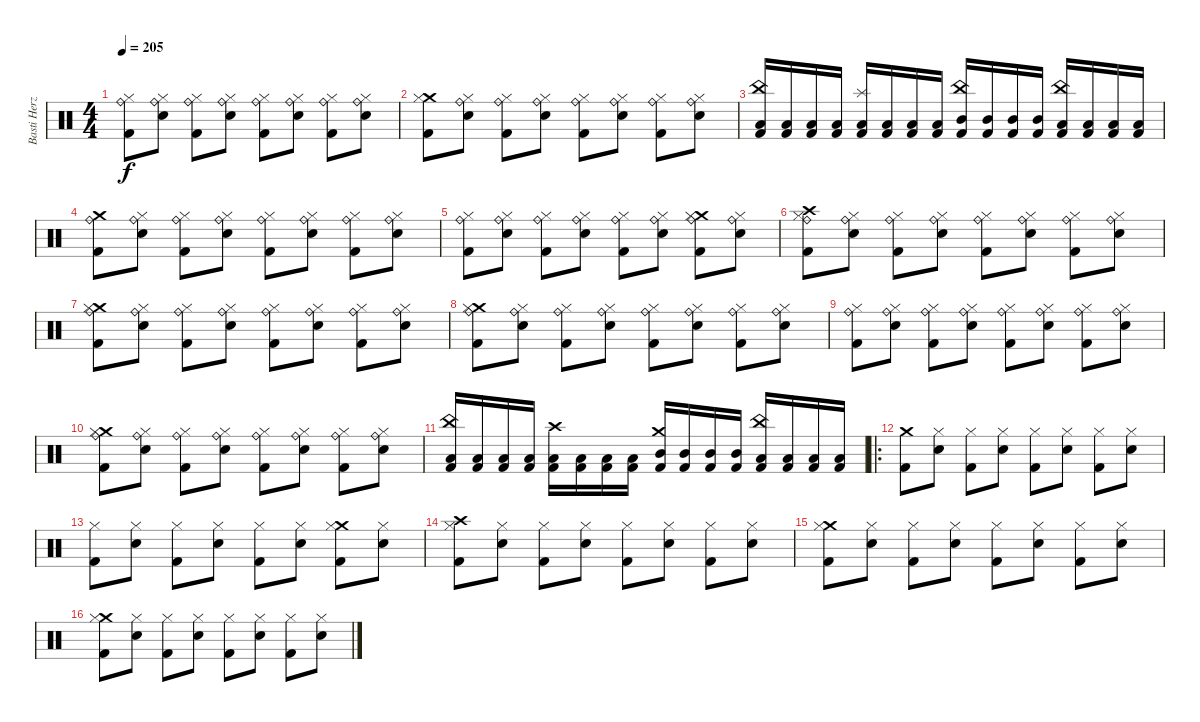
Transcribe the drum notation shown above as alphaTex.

\track ("Basti Herzog" "Basti Herz") {instrument percussion}
\staff {score}
\articulation defaults
\ts (4 4)
\tempo 205
\clef neutral
\ks c
("Ride (bell)" "Hi-Hat (closed)" "Kick (hit) 2").8{dy f} ("Ride (bell)" "Hi-Hat (closed)" "Snare (hit) 2").8 ("Ride (bell)" "Hi-Hat (closed)" "Kick (hit) 2").8 ("Ride (bell)" "Hi-Hat (closed)" "Snare (hit) 2").8 ("Ride (bell)" "Hi-Hat (closed)" "Kick (hit) 2").8 ("Ride (bell)" "Hi-Hat (closed)" "Snare (hit) 2").8 ("Ride (bell)" "Hi-Hat (closed)" "Kick (hit) 2").8 ("Ride (bell)" "Hi-Hat (closed)" "Snare (hit) 2").8 |
("Crash medium (hit)" "Hi-Hat (closed)" "Kick (hit) 2").8 ("Ride (bell)" "Hi-Hat (closed)" "Snare (hit) 2").8 ("Ride (bell)" "Hi-Hat (closed)" "Kick (hit) 2").8 ("Ride (bell)" "Hi-Hat (closed)" "Snare (hit) 2").8 ("Ride (bell)" "Hi-Hat (closed)" "Kick (hit) 2").8 ("Ride (bell)" "Hi-Hat (closed)" "Snare (hit) 2").8 ("Ride (bell)" "Hi-Hat (closed)" "Kick (hit) 2").8 ("Ride (bell)" "Hi-Hat (closed)" "Snare (hit) 2").8 |
("China (hit)" "Low Tom (hit)" "Kick (hit) 2").16 ("Low Tom (hit)" "Kick (hit) 2").16 ("Low Tom (hit)" "Kick (hit) 2").16 ("Low Tom (hit)" "Kick (hit) 2").16 ("Splash (hit)" "Low Floor Tom (hit)" "Kick (hit) 2").16 ("Low Floor Tom (hit)" "Kick (hit) 2").16 ("Low Floor Tom (hit)" "Kick (hit) 2").16 ("Low Floor Tom (hit)" "Kick (hit) 2").16 ("China (hit)" "Mid Tom (hit)" "Kick (hit) 2").16 ("Mid Tom (hit)" "Kick (hit) 2").16 ("Mid Tom (hit)" "Kick (hit) 2").16 ("Mid Tom (hit)" "Kick (hit) 2").16 ("China (hit)" "Low Tom (hit)" "Kick (hit) 2").16 ("Low Tom (hit)" "Kick (hit) 2").16 ("Low Tom (hit)" "Kick (hit) 2").16 ("Low Tom (hit)" "Kick (hit) 2").16 |
("Ride (bell)" "Crash medium (hit)" "Kick (hit) 2").8 ("Ride (bell)" "Hi-Hat (closed)" "Snare (hit) 2").8 ("Ride (bell)" "Hi-Hat (closed)" "Kick (hit) 2").8 ("Ride (bell)" "Hi-Hat (closed)" "Snare (hit) 2").8 ("Ride (bell)" "Hi-Hat (closed)" "Kick (hit) 2").8 ("Ride (bell)" "Hi-Hat (closed)" "Snare (hit) 2").8 ("Ride (bell)" "Hi-Hat (closed)" "Kick (hit) 2").8 ("Ride (bell)" "Hi-Hat (closed)" "Snare (hit) 2").8 |
("Ride (bell)" "Hi-Hat (closed)" "Kick (hit) 2").8 ("Ride (bell)" "Hi-Hat (closed)" "Snare (hit) 2").8 ("Ride (bell)" "Hi-Hat (closed)" "Kick (hit) 2").8 ("Ride (bell)" "Hi-Hat (closed)" "Snare (hit) 2").8 ("Ride (bell)" "Hi-Hat (closed)" "Kick (hit) 2").8 ("Ride (bell)" "Hi-Hat (closed)" "Snare (hit) 2").8 ("Ride (bell)" "Crash medium (hit)" "Hi-Hat (closed)" "Kick (hit) 2").8 ("Ride (bell)" "Hi-Hat (closed)" "Snare (hit) 2").8 |
("Ride (bell)" "Crash high (hit)" "Hi-Hat (closed)" "Kick (hit) 2").8 ("Ride (bell)" "Hi-Hat (closed)" "Snare (hit) 2").8 ("Ride (bell)" "Hi-Hat (closed)" "Kick (hit) 2").8 ("Ride (bell)" "Hi-Hat (closed)" "Snare (hit) 2").8 ("Ride (bell)" "Hi-Hat (closed)" "Kick (hit) 2").8 ("Ride (bell)" "Hi-Hat (closed)" "Snare (hit) 2").8 ("Ride (bell)" "Hi-Hat (closed)" "Kick (hit) 2").8 ("Ride (bell)" "Hi-Hat (closed)" "Snare (hit) 2").8 |
("Ride (bell)" "Crash medium (hit)" "Hi-Hat (closed)" "Kick (hit) 2").8 ("Ride (bell)" "Hi-Hat (closed)" "Snare (hit) 2").8 ("Ride (bell)" "Hi-Hat (closed)" "Kick (hit) 2").8 ("Ride (bell)" "Hi-Hat (closed)" "Snare (hit) 2").8 ("Ride (bell)" "Hi-Hat (closed)" "Kick (hit) 2").8 ("Ride (bell)" "Hi-Hat (closed)" "Snare (hit) 2").8 ("Ride (bell)" "Hi-Hat (closed)" "Kick (hit) 2").8 ("Ride (bell)" "Hi-Hat (closed)" "Snare (hit) 2").8 |
("Ride (bell)" "Crash medium (hit)" "Hi-Hat (closed)" "Kick (hit) 2").8 ("Ride (bell)" "Hi-Hat (closed)" "Snare (hit) 2").8 ("Ride (bell)" "Hi-Hat (closed)" "Kick (hit) 2").8 ("Ride (bell)" "Hi-Hat (closed)" "Snare (hit) 2").8 ("Ride (bell)" "Hi-Hat (closed)" "Kick (hit) 2").8 ("Ride (bell)" "Hi-Hat (closed)" "Snare (hit) 2").8 ("Ride (bell)" "Hi-Hat (closed)" "Kick (hit) 2").8 ("Ride (bell)" "Hi-Hat (closed)" "Snare (hit) 2").8 |
("Ride (bell)" "Hi-Hat (closed)" "Kick (hit) 2").8 ("Ride (bell)" "Hi-Hat (closed)" "Snare (hit) 2").8 ("Ride (bell)" "Hi-Hat (closed)" "Kick (hit) 2").8 ("Ride (bell)" "Hi-Hat (closed)" "Snare (hit) 2").8 ("Ride (bell)" "Hi-Hat (closed)" "Kick (hit) 2").8 ("Ride (bell)" "Hi-Hat (closed)" "Snare (hit) 2").8 ("Ride (bell)" "Hi-Hat (closed)" "Kick (hit) 2").8 ("Ride (bell)" "Hi-Hat (closed)" "Snare (hit) 2").8 |
("Ride (bell)" "Crash medium (hit)" "Hi-Hat (closed)" "Kick (hit) 2").8 ("Ride (bell)" "Hi-Hat (closed)" "Snare (hit) 2").8 ("Ride (bell)" "Hi-Hat (closed)" "Kick (hit) 2").8 ("Ride (bell)" "Hi-Hat (closed)" "Snare (hit) 2").8 ("Ride (bell)" "Hi-Hat (closed)" "Kick (hit) 2").8 ("Ride (bell)" "Hi-Hat (closed)" "Snare (hit) 2").8 ("Ride (bell)" "Hi-Hat (closed)" "Kick (hit) 2").8 ("Ride (bell)" "Hi-Hat (closed)" "Snare (hit) 2").8 |
("China (hit)" "Low Tom (hit)" "Kick (hit) 2").16 ("Low Tom (hit)" "Kick (hit) 2").16 ("Low Tom (hit)" "Kick (hit) 2").16 ("Low Tom (hit)" "Kick (hit) 2").16 ("Crash high (hit)" "Low Floor Tom (hit)" "Kick (hit) 2").16 ("Low Floor Tom (hit)" "Kick (hit) 2").16 ("Low Floor Tom (hit)" "Kick (hit) 2").16 ("Low Floor Tom (hit)" "Kick (hit) 2").16 ("Crash medium (hit)" "Mid Tom (hit)" "Kick (hit) 2").16 ("Mid Tom (hit)" "Kick (hit) 2").16 ("Mid Tom (hit)" "Kick (hit) 2").16 ("Mid Tom (hit)" "Kick (hit) 2").16 ("China (hit)" "Low Tom (hit)" "Kick (hit) 2").16 ("Low Tom (hit)" "Kick (hit) 2").16 ("Low Tom (hit)" "Kick (hit) 2").16 ("Low Tom (hit)" "Kick (hit) 2").16 |
\ro
("Crash medium (hit)" "Kick (hit) 2").8 ("Hi-Hat (closed)" "Snare (hit) 2").8 ("Hi-Hat (closed)" "Kick (hit) 2").8 ("Hi-Hat (closed)" "Snare (hit) 2").8 ("Hi-Hat (closed)" "Kick (hit) 2").8 ("Hi-Hat (closed)" "Snare (hit) 2").8 ("Hi-Hat (closed)" "Kick (hit) 2").8 ("Hi-Hat (closed)" "Snare (hit) 2").8 |
("Hi-Hat (closed)" "Kick (hit) 2").8 ("Hi-Hat (closed)" "Snare (hit) 2").8 ("Hi-Hat (closed)" "Kick (hit) 2").8 ("Hi-Hat (closed)" "Snare (hit) 2").8 ("Hi-Hat (closed)" "Kick (hit) 2").8 ("Hi-Hat (closed)" "Snare (hit) 2").8 ("Crash medium (hit)" "Hi-Hat (closed)" "Kick (hit) 2").8 ("Hi-Hat (closed)" "Snare (hit) 2").8 |
("Crash high (hit)" "Hi-Hat (closed)" "Kick (hit) 2").8 ("Hi-Hat (closed)" "Snare (hit) 2").8 ("Hi-Hat (closed)" "Kick (hit) 2").8 ("Hi-Hat (closed)" "Snare (hit) 2").8 ("Hi-Hat (closed)" "Kick (hit) 2").8 ("Hi-Hat (closed)" "Snare (hit) 2").8 ("Hi-Hat (closed)" "Kick (hit) 2").8 ("Hi-Hat (closed)" "Snare (hit) 2").8 |
("Crash medium (hit)" "Hi-Hat (closed)" "Kick (hit) 2").8 ("Hi-Hat (closed)" "Snare (hit) 2").8 ("Hi-Hat (closed)" "Kick (hit) 2").8 ("Hi-Hat (closed)" "Snare (hit) 2").8 ("Hi-Hat (closed)" "Kick (hit) 2").8 ("Hi-Hat (closed)" "Snare (hit) 2").8 ("Hi-Hat (closed)" "Kick (hit) 2").8 ("Hi-Hat (closed)" "Snare (hit) 2").8 |
("Crash medium (hit)" "Hi-Hat (closed)" "Kick (hit) 2").8 ("Hi-Hat (closed)" "Snare (hit) 2").8 ("Hi-Hat (closed)" "Kick (hit) 2").8 ("Hi-Hat (closed)" "Snare (hit) 2").8 ("Hi-Hat (closed)" "Kick (hit) 2").8 ("Hi-Hat (closed)" "Snare (hit) 2").8 ("Hi-Hat (closed)" "Kick (hit) 2").8 ("Hi-Hat (closed)" "Snare (hit) 2").8
